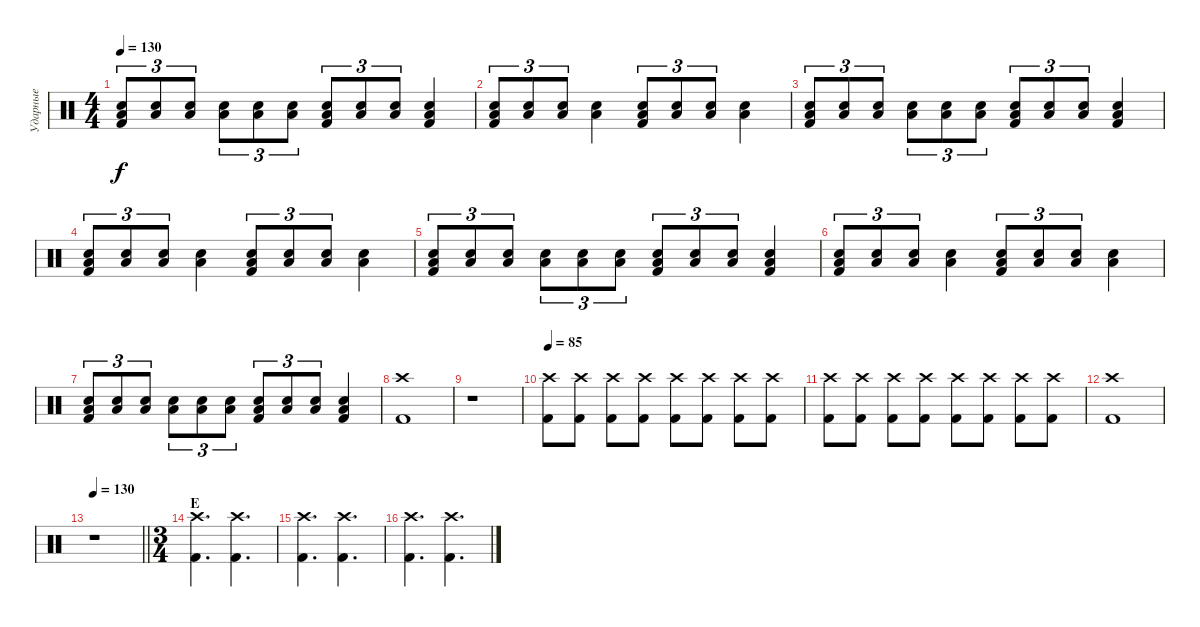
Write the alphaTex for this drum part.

\track ("Ударные" "Ударные") {instrument percussion}
\staff {score}
\articulation defaults
\ts (4 4)
\tempo 130
\clef neutral
\ks c
("Low Floor Tom (hit)" "Electric Snare (hit)" "Kick (hit) 2").8{tu (3 2) dy f} ("Low Floor Tom (hit)" "Electric Snare (hit)").8{tu (3 2)} ("Low Floor Tom (hit)" "Electric Snare (hit)").8{tu (3 2)} ("Low Floor Tom (hit)" "Electric Snare (hit)").8{tu (3 2)} ("Low Floor Tom (hit)" "Electric Snare (hit)").8{tu (3 2)} ("Low Floor Tom (hit)" "Electric Snare (hit)").8{tu (3 2)} ("Low Floor Tom (hit)" "Electric Snare (hit)" "Kick (hit) 2").8{tu (3 2)} ("Low Floor Tom (hit)" "Electric Snare (hit)").8{tu (3 2)} ("Low Floor Tom (hit)" "Electric Snare (hit)").8{tu (3 2)} ("Low Floor Tom (hit)" "Electric Snare (hit)" "Kick (hit) 2").4 |
("Low Floor Tom (hit)" "Electric Snare (hit)" "Kick (hit) 2").8{tu (3 2)} ("Low Floor Tom (hit)" "Electric Snare (hit)").8{tu (3 2)} ("Low Floor Tom (hit)" "Electric Snare (hit)").8{tu (3 2)} ("Low Floor Tom (hit)" "Electric Snare (hit)").4 ("Low Floor Tom (hit)" "Electric Snare (hit)" "Kick (hit) 2").8{tu (3 2)} ("Low Floor Tom (hit)" "Electric Snare (hit)").8{tu (3 2)} ("Low Floor Tom (hit)" "Electric Snare (hit)").8{tu (3 2)} ("Low Floor Tom (hit)" "Electric Snare (hit)").4 |
("Low Floor Tom (hit)" "Electric Snare (hit)" "Kick (hit) 2").8{tu (3 2)} ("Low Floor Tom (hit)" "Electric Snare (hit)").8{tu (3 2)} ("Low Floor Tom (hit)" "Electric Snare (hit)").8{tu (3 2)} ("Low Floor Tom (hit)" "Electric Snare (hit)").8{tu (3 2)} ("Low Floor Tom (hit)" "Electric Snare (hit)").8{tu (3 2)} ("Low Floor Tom (hit)" "Electric Snare (hit)").8{tu (3 2)} ("Low Floor Tom (hit)" "Electric Snare (hit)" "Kick (hit) 2").8{tu (3 2)} ("Low Floor Tom (hit)" "Electric Snare (hit)").8{tu (3 2)} ("Low Floor Tom (hit)" "Electric Snare (hit)").8{tu (3 2)} ("Low Floor Tom (hit)" "Electric Snare (hit)" "Kick (hit) 2").4 |
("Low Floor Tom (hit)" "Electric Snare (hit)" "Kick (hit) 2").8{tu (3 2)} ("Low Floor Tom (hit)" "Electric Snare (hit)").8{tu (3 2)} ("Low Floor Tom (hit)" "Electric Snare (hit)").8{tu (3 2)} ("Low Floor Tom (hit)" "Electric Snare (hit)").4 ("Low Floor Tom (hit)" "Electric Snare (hit)" "Kick (hit) 2").8{tu (3 2)} ("Low Floor Tom (hit)" "Electric Snare (hit)").8{tu (3 2)} ("Low Floor Tom (hit)" "Electric Snare (hit)").8{tu (3 2)} ("Low Floor Tom (hit)" "Electric Snare (hit)").4 |
("Low Floor Tom (hit)" "Electric Snare (hit)" "Kick (hit) 2").8{tu (3 2)} ("Low Floor Tom (hit)" "Electric Snare (hit)").8{tu (3 2)} ("Low Floor Tom (hit)" "Electric Snare (hit)").8{tu (3 2)} ("Low Floor Tom (hit)" "Electric Snare (hit)").8{tu (3 2)} ("Low Floor Tom (hit)" "Electric Snare (hit)").8{tu (3 2)} ("Low Floor Tom (hit)" "Electric Snare (hit)").8{tu (3 2)} ("Low Floor Tom (hit)" "Electric Snare (hit)" "Kick (hit) 2").8{tu (3 2)} ("Low Floor Tom (hit)" "Electric Snare (hit)").8{tu (3 2)} ("Low Floor Tom (hit)" "Electric Snare (hit)").8{tu (3 2)} ("Low Floor Tom (hit)" "Electric Snare (hit)" "Kick (hit) 2").4 |
("Low Floor Tom (hit)" "Electric Snare (hit)" "Kick (hit) 2").8{tu (3 2)} ("Low Floor Tom (hit)" "Electric Snare (hit)").8{tu (3 2)} ("Low Floor Tom (hit)" "Electric Snare (hit)").8{tu (3 2)} ("Low Floor Tom (hit)" "Electric Snare (hit)").4 ("Low Floor Tom (hit)" "Electric Snare (hit)" "Kick (hit) 2").8{tu (3 2)} ("Low Floor Tom (hit)" "Electric Snare (hit)").8{tu (3 2)} ("Low Floor Tom (hit)" "Electric Snare (hit)").8{tu (3 2)} ("Low Floor Tom (hit)" "Electric Snare (hit)").4 |
("Low Floor Tom (hit)" "Electric Snare (hit)" "Kick (hit) 2").8{tu (3 2)} ("Low Floor Tom (hit)" "Electric Snare (hit)").8{tu (3 2)} ("Low Floor Tom (hit)" "Electric Snare (hit)").8{tu (3 2)} ("Low Floor Tom (hit)" "Electric Snare (hit)").8{tu (3 2)} ("Low Floor Tom (hit)" "Electric Snare (hit)").8{tu (3 2)} ("Low Floor Tom (hit)" "Electric Snare (hit)").8{tu (3 2)} ("Low Floor Tom (hit)" "Electric Snare (hit)" "Kick (hit) 2").8{tu (3 2)} ("Low Floor Tom (hit)" "Electric Snare (hit)").8{tu (3 2)} ("Low Floor Tom (hit)" "Electric Snare (hit)").8{tu (3 2)} ("Low Floor Tom (hit)" "Electric Snare (hit)" "Kick (hit) 2").4 |
("Crash high (hit)" "Kick (hit) 2").1 |
r.1 |
\tempo 85
("Crash high (hit)" "Kick (hit) 2").8 ("Crash high (hit)" "Kick (hit) 2").8 ("Crash high (hit)" "Kick (hit) 2").8 ("Crash high (hit)" "Kick (hit) 2").8 ("Crash high (hit)" "Kick (hit) 2").8 ("Crash high (hit)" "Kick (hit) 2").8 ("Crash high (hit)" "Kick (hit) 2").8 ("Crash high (hit)" "Kick (hit) 2").8 |
("Crash high (hit)" "Kick (hit) 2").8 ("Crash high (hit)" "Kick (hit) 2").8 ("Crash high (hit)" "Kick (hit) 2").8 ("Crash high (hit)" "Kick (hit) 2").8 ("Crash high (hit)" "Kick (hit) 2").8 ("Crash high (hit)" "Kick (hit) 2").8 ("Crash high (hit)" "Kick (hit) 2").8 ("Crash high (hit)" "Kick (hit) 2").8 |
("Crash high (hit)" "Kick (hit) 2").1 |
\tempo 130
\barLineRight lightlight
r.1 |
\ts (3 4)
\section ("" "E")
("Crash high (hit)" "Kick (hit) 2").4{d} ("Crash high (hit)" "Kick (hit) 2").4{d} |
("Crash high (hit)" "Kick (hit) 2").4{d} ("Crash high (hit)" "Kick (hit) 2").4{d} |
("Crash high (hit)" "Kick (hit) 2").4{d} ("Crash high (hit)" "Kick (hit) 2").4{d}
